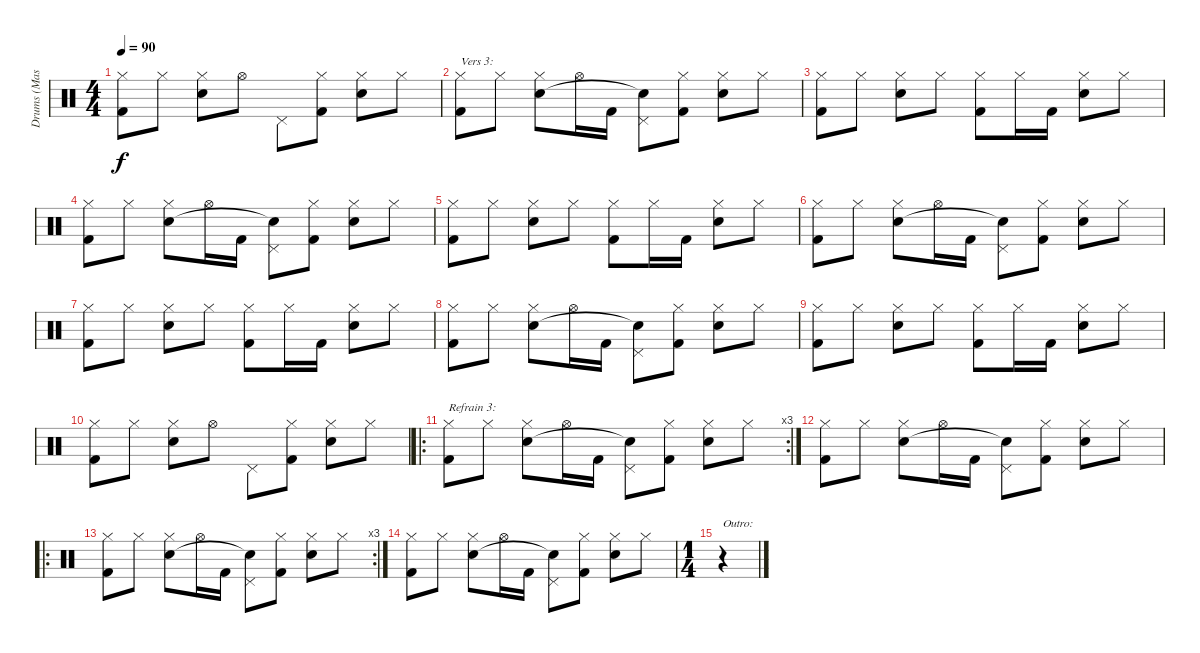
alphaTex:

\track ("Drums (Mason):" "Drums (Mas") {instrument percussion}
\staff {score}
\articulation defaults
\ts (4 4)
\tempo 90
\clef neutral
\ks c
("Hi-Hat (closed)" "Kick (hit) 2").8{dy f} "Hi-Hat (closed)".8 ("Hi-Hat (closed)" "Snare (hit) 2").8 "Hi-Hat (open)".8 "Pedal Hi-Hat (hit)".8 ("Hi-Hat (closed)" "Kick (hit) 2").8 ("Hi-Hat (closed)" "Snare (hit) 2").8 "Hi-Hat (closed)".8 |
("Hi-Hat (closed)" "Kick (hit) 2").8{txt "Vers 3:"} "Hi-Hat (closed)".8 ("Hi-Hat (closed)" "Snare (hit) 2").8 "Hi-Hat (open)".16 "Kick (hit) 2".16 ("Pedal Hi-Hat (hit)" "Snare (hit)"{t}).8 ("Hi-Hat (closed)" "Kick (hit) 2").8 ("Hi-Hat (closed)" "Snare (hit) 2").8 "Hi-Hat (closed)".8 |
("Hi-Hat (closed)" "Kick (hit) 2").8 "Hi-Hat (closed)".8 ("Hi-Hat (closed)" "Snare (hit) 2").8 "Hi-Hat (closed)".8 ("Hi-Hat (closed)" "Kick (hit) 2").8 "Hi-Hat (closed)".16 "Kick (hit) 2".16 ("Hi-Hat (closed)" "Snare (hit) 2").8 "Hi-Hat (closed)".8 |
("Hi-Hat (closed)" "Kick (hit) 2").8 "Hi-Hat (closed)".8 ("Hi-Hat (closed)" "Snare (hit) 2").8 "Hi-Hat (open)".16 "Kick (hit) 2".16 ("Pedal Hi-Hat (hit)" "Snare (hit)"{t}).8 ("Hi-Hat (closed)" "Kick (hit) 2").8 ("Hi-Hat (closed)" "Snare (hit) 2").8 "Hi-Hat (closed)".8 |
("Hi-Hat (closed)" "Kick (hit) 2").8 "Hi-Hat (closed)".8 ("Hi-Hat (closed)" "Snare (hit) 2").8 "Hi-Hat (closed)".8 ("Hi-Hat (closed)" "Kick (hit) 2").8 "Hi-Hat (closed)".16 "Kick (hit) 2".16 ("Hi-Hat (closed)" "Snare (hit) 2").8 "Hi-Hat (closed)".8 |
("Hi-Hat (closed)" "Kick (hit) 2").8 "Hi-Hat (closed)".8 ("Hi-Hat (closed)" "Snare (hit) 2").8 "Hi-Hat (open)".16 "Kick (hit) 2".16 ("Pedal Hi-Hat (hit)" "Snare (hit)"{t}).8 ("Hi-Hat (closed)" "Kick (hit) 2").8 ("Hi-Hat (closed)" "Snare (hit) 2").8 "Hi-Hat (closed)".8 |
("Hi-Hat (closed)" "Kick (hit) 2").8 "Hi-Hat (closed)".8 ("Hi-Hat (closed)" "Snare (hit) 2").8 "Hi-Hat (closed)".8 ("Hi-Hat (closed)" "Kick (hit) 2").8 "Hi-Hat (closed)".16 "Kick (hit) 2".16 ("Hi-Hat (closed)" "Snare (hit) 2").8 "Hi-Hat (closed)".8 |
("Hi-Hat (closed)" "Kick (hit) 2").8 "Hi-Hat (closed)".8 ("Hi-Hat (closed)" "Snare (hit) 2").8 "Hi-Hat (open)".16 "Kick (hit) 2".16 ("Pedal Hi-Hat (hit)" "Snare (hit)"{t}).8 ("Hi-Hat (closed)" "Kick (hit) 2").8 ("Hi-Hat (closed)" "Snare (hit) 2").8 "Hi-Hat (closed)".8 |
("Hi-Hat (closed)" "Kick (hit) 2").8 "Hi-Hat (closed)".8 ("Hi-Hat (closed)" "Snare (hit) 2").8 "Hi-Hat (closed)".8 ("Hi-Hat (closed)" "Kick (hit) 2").8 "Hi-Hat (closed)".16 "Kick (hit) 2".16 ("Hi-Hat (closed)" "Snare (hit) 2").8 "Hi-Hat (closed)".8 |
("Hi-Hat (closed)" "Kick (hit) 2").8 "Hi-Hat (closed)".8 ("Hi-Hat (closed)" "Snare (hit) 2").8 "Hi-Hat (open)".8 "Pedal Hi-Hat (hit)".8 ("Hi-Hat (closed)" "Kick (hit) 2").8 ("Hi-Hat (closed)" "Snare (hit) 2").8 "Hi-Hat (closed)".8 |
\ro
\rc 3
("Hi-Hat (closed)" "Kick (hit) 2").8{txt "Refrain 3:"} "Hi-Hat (closed)".8 ("Hi-Hat (closed)" "Snare (hit) 2").8 "Hi-Hat (open)".16 "Kick (hit) 2".16 ("Pedal Hi-Hat (hit)" "Snare (hit)"{t}).8 ("Hi-Hat (closed)" "Kick (hit) 2").8 ("Hi-Hat (closed)" "Snare (hit) 2").8 "Hi-Hat (closed)".8 |
("Hi-Hat (closed)" "Kick (hit) 2").8 "Hi-Hat (closed)".8 ("Hi-Hat (closed)" "Snare (hit) 2").8 "Hi-Hat (open)".16 "Kick (hit) 2".16 ("Pedal Hi-Hat (hit)" "Snare (hit)"{t}).8 ("Hi-Hat (closed)" "Kick (hit) 2").8 ("Hi-Hat (closed)" "Snare (hit) 2").8 "Hi-Hat (closed)".8 |
\ro
\rc 3
("Hi-Hat (closed)" "Kick (hit) 2").8 "Hi-Hat (closed)".8 ("Hi-Hat (closed)" "Snare (hit) 2").8 "Hi-Hat (open)".16 "Kick (hit) 2".16 ("Pedal Hi-Hat (hit)" "Snare (hit)"{t}).8 ("Hi-Hat (closed)" "Kick (hit) 2").8 ("Hi-Hat (closed)" "Snare (hit) 2").8 "Hi-Hat (closed)".8 |
("Hi-Hat (closed)" "Kick (hit) 2").8 "Hi-Hat (closed)".8 ("Hi-Hat (closed)" "Snare (hit) 2").8 "Hi-Hat (open)".16 "Kick (hit) 2".16 ("Pedal Hi-Hat (hit)" "Snare (hit)"{t}).8 ("Hi-Hat (closed)" "Kick (hit) 2").8 ("Hi-Hat (closed)" "Snare (hit) 2").8 "Hi-Hat (closed)".8 |
\ts (1 4)
r.4{txt "Outro:"}
